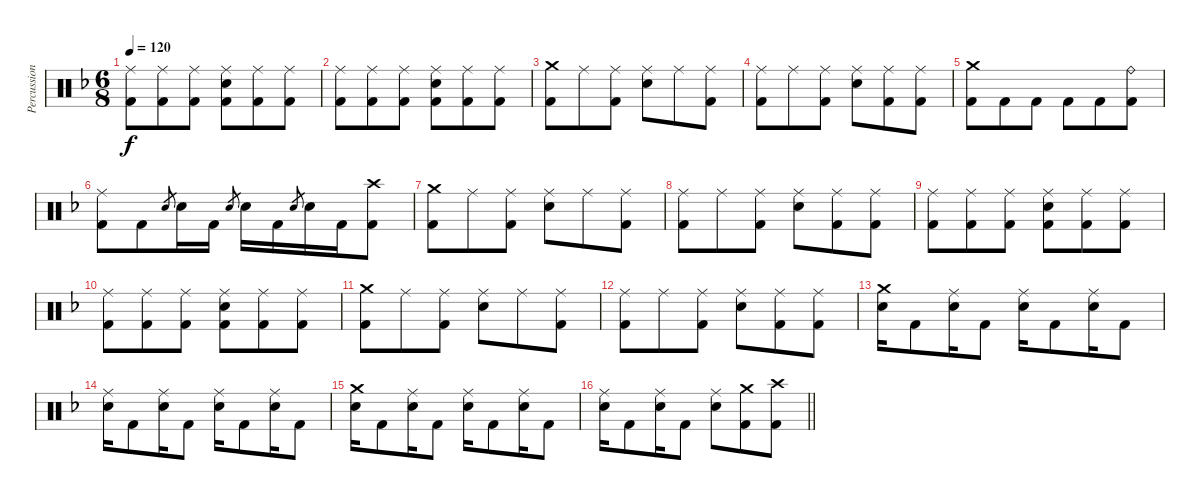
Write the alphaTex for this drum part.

\track ("Percussion" "Percussion") {instrument percussion}
\staff {score}
\articulation defaults
\ts (6 8)
\tempo 120
\clef neutral
\ks f
("Ride (middle)" "Kick (hit) 2").8{dy f} ("Ride (middle)" "Kick (hit) 2").8 ("Ride (middle)" "Kick (hit) 2").8 ("Ride (middle)" "Electric Snare (hit)" "Kick (hit) 2").8 ("Ride (middle)" "Kick (hit) 2").8 ("Ride (middle)" "Kick (hit) 2").8 |
("Ride (middle)" "Kick (hit) 2").8 ("Ride (middle)" "Kick (hit) 2").8 ("Ride (middle)" "Kick (hit) 2").8 ("Ride (middle)" "Electric Snare (hit)" "Kick (hit) 2").8 ("Ride (middle)" "Kick (hit) 2").8 ("Ride (middle)" "Kick (hit) 2").8 |
("Crash medium (hit)" "Kick (hit) 2").8 "Ride (middle)".8 ("Ride (middle)" "Kick (hit) 2").8 ("Ride (middle)" "Electric Snare (hit)").8 "Ride (middle)".8 ("Ride (middle)" "Kick (hit) 2").8 |
("Ride (middle)" "Kick (hit) 2").8 "Ride (middle)".8 ("Ride (middle)" "Kick (hit) 2").8 ("Ride (middle)" "Electric Snare (hit)").8 ("Ride (middle)" "Kick (hit) 2").8 ("Ride (middle)" "Kick (hit) 2").8 |
("Crash medium (hit)" "Kick (hit) 2").8 "Kick (hit) 2".8 "Kick (hit) 2".8 "Kick (hit) 2".8 "Kick (hit) 2".8 ("Ride (bell)" "Kick (hit) 2").8 |
("Ride (middle)" "Kick (hit) 2").8 "Kick (hit) 2".8 "Electric Snare (hit)".8{gr} "Electric Snare (hit)".16 "Kick (hit) 2".16 "Electric Snare (hit)".8{gr} "Electric Snare (hit)".16 "Kick (hit) 2".16 "Electric Snare (hit)".8{gr} "Electric Snare (hit)".16 "Kick (hit) 2".16 ("Crash high (hit)" "Kick (hit) 2").8 |
("Crash medium (hit)" "Kick (hit) 2").8 "Ride (middle)".8 ("Ride (middle)" "Kick (hit) 2").8 ("Ride (middle)" "Electric Snare (hit)").8 "Ride (middle)".8 ("Ride (middle)" "Kick (hit) 2").8 |
("Ride (middle)" "Kick (hit) 2").8 "Ride (middle)".8 ("Ride (middle)" "Kick (hit) 2").8 ("Ride (middle)" "Electric Snare (hit)").8 ("Ride (middle)" "Kick (hit) 2").8 ("Ride (middle)" "Kick (hit) 2").8 |
("Ride (middle)" "Kick (hit) 2").8 ("Ride (middle)" "Kick (hit) 2").8 ("Ride (middle)" "Kick (hit) 2").8 ("Ride (middle)" "Electric Snare (hit)" "Kick (hit) 2").8 ("Ride (middle)" "Kick (hit) 2").8 ("Ride (middle)" "Kick (hit) 2").8 |
("Ride (middle)" "Kick (hit) 2").8 ("Ride (middle)" "Kick (hit) 2").8 ("Ride (middle)" "Kick (hit) 2").8 ("Ride (middle)" "Electric Snare (hit)" "Kick (hit) 2").8 ("Ride (middle)" "Kick (hit) 2").8 ("Ride (middle)" "Kick (hit) 2").8 |
("Crash medium (hit)" "Kick (hit) 2").8 "Ride (middle)".8 ("Ride (middle)" "Kick (hit) 2").8 ("Ride (middle)" "Electric Snare (hit)").8 "Ride (middle)".8 ("Ride (middle)" "Kick (hit) 2").8 |
("Ride (middle)" "Kick (hit) 2").8 "Ride (middle)".8 ("Ride (middle)" "Kick (hit) 2").8 ("Ride (middle)" "Electric Snare (hit)").8 ("Ride (middle)" "Kick (hit) 2").8 ("Ride (middle)" "Kick (hit) 2").8 |
("Crash medium (hit)" "Electric Snare (hit)").16 "Kick (hit) 2".8 ("Ride (middle)" "Electric Snare (hit)").16 "Kick (hit) 2".8 ("Ride (middle)" "Electric Snare (hit)").16 "Kick (hit) 2".8 ("Ride (middle)" "Electric Snare (hit)").16 "Kick (hit) 2".8 |
("Ride (middle)" "Electric Snare (hit)").16 "Kick (hit) 2".8 ("Ride (middle)" "Electric Snare (hit)").16 "Kick (hit) 2".8 ("Ride (middle)" "Electric Snare (hit)").16 "Kick (hit) 2".8 ("Ride (middle)" "Electric Snare (hit)").16 "Kick (hit) 2".8 |
("Crash medium (hit)" "Electric Snare (hit)").16 "Kick (hit) 2".8 ("Ride (middle)" "Electric Snare (hit)").16 "Kick (hit) 2".8 ("Ride (middle)" "Electric Snare (hit)").16 "Kick (hit) 2".8 ("Ride (middle)" "Electric Snare (hit)").16 "Kick (hit) 2".8 |
\barLineRight lightlight
("Ride (middle)" "Electric Snare (hit)").16 "Kick (hit) 2".8 ("Ride (middle)" "Electric Snare (hit)").16 "Kick (hit) 2".8 ("Ride (middle)" "Electric Snare (hit)").8 ("Crash medium (hit)" "Kick (hit) 2").8 ("Crash high (hit)" "Kick (hit) 2").8
